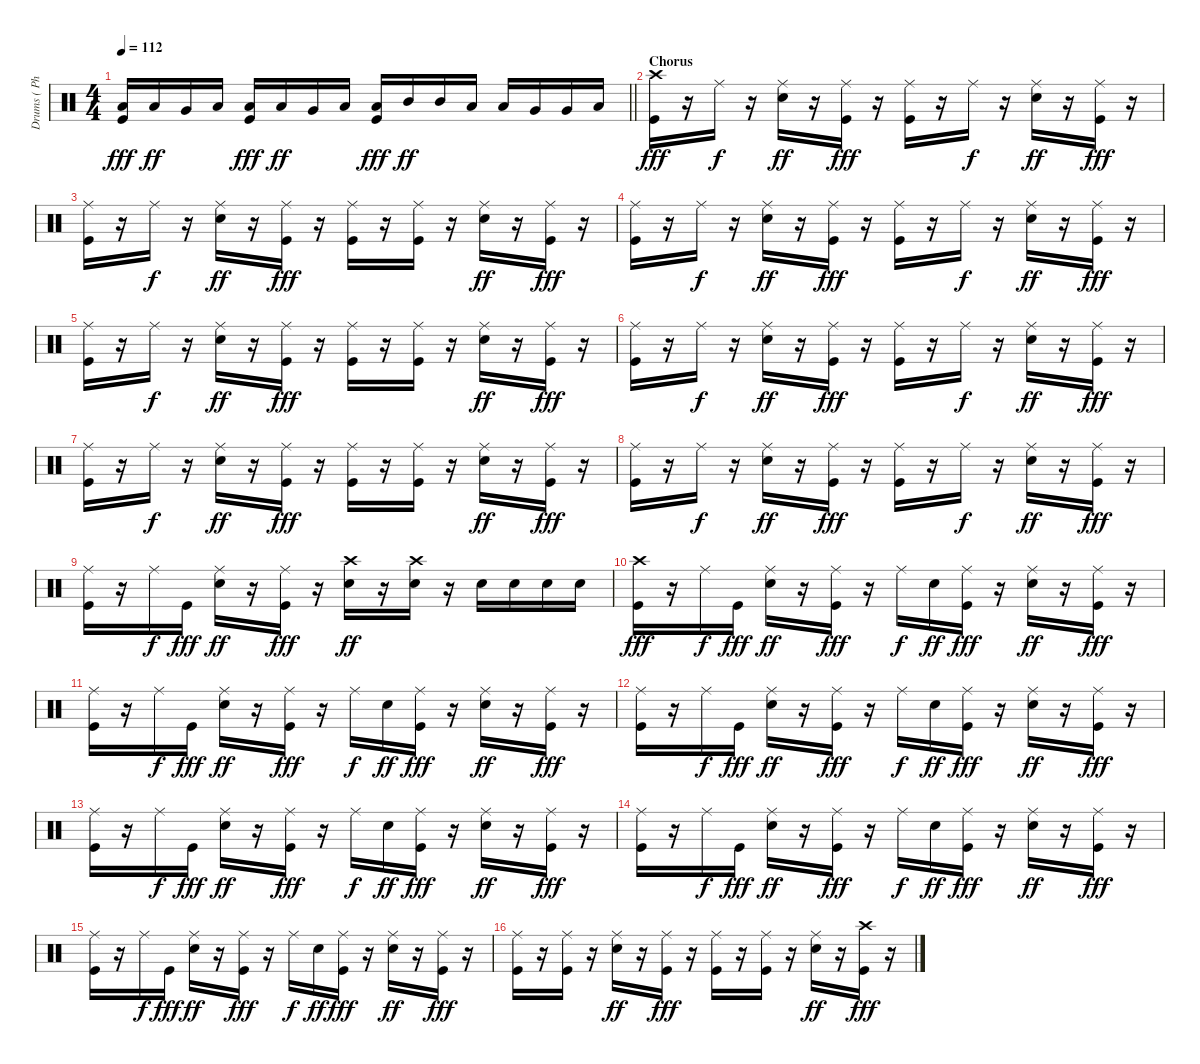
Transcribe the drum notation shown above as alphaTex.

\track ("Drums ( Phillip Selway )" "Drums ( Ph") {instrument percussion}
\staff {score}
\articulation defaults
\ts (4 4)
\tempo 112
\clef neutral
\barLineRight lightlight
\ks c
("Low Tom (hit)" "Kick (hit)").16{dy fff} "Low Floor Tom (hit)".16{dy ff} "Very Low Tom (hit)".16 "Low Floor Tom (hit)".16 ("Low Tom (hit)" "Kick (hit)").16{dy fff} "Low Floor Tom (hit)".16{dy ff} "Very Low Tom (hit)".16 "Low Floor Tom (hit)".16 ("Low Tom (hit)" "Kick (hit)").16{dy fff} "Mid Tom (hit)".16{dy ff} "Mid Tom (hit)".16 "Low Tom (hit)".16 "Low Tom (hit)".16 "Very Low Tom (hit)".16 "Very Low Tom (hit)".16 "Low Floor Tom (hit)".16 |
\section ("" "Chorus")
("Crash high (hit)" "Kick (hit)").16{dy fff} r.16 "Ride (middle)".16{dy f} r.16 ("Ride (middle)" "Electric Snare (hit)").16{dy ff} r.16 ("Ride (middle)" "Kick (hit)").16{dy fff} r.16 ("Ride (middle)" "Kick (hit)").16 r.16 "Ride (middle)".16{dy f} r.16 ("Ride (middle)" "Electric Snare (hit)").16{dy ff} r.16 ("Ride (middle)" "Kick (hit)").16{dy fff} r.16 |
("Ride (middle)" "Kick (hit)").16 r.16 "Ride (middle)".16{dy f} r.16 ("Ride (middle)" "Electric Snare (hit)").16{dy ff} r.16 ("Ride (middle)" "Kick (hit)").16{dy fff} r.16 ("Ride (middle)" "Kick (hit)").16 r.16 ("Ride (middle)" "Kick (hit)").16 r.16 ("Ride (middle)" "Electric Snare (hit)").16{dy ff} r.16 ("Ride (middle)" "Kick (hit)").16{dy fff} r.16 |
("Ride (middle)" "Kick (hit)").16 r.16 "Ride (middle)".16{dy f} r.16 ("Ride (middle)" "Electric Snare (hit)").16{dy ff} r.16 ("Ride (middle)" "Kick (hit)").16{dy fff} r.16 ("Ride (middle)" "Kick (hit)").16 r.16 "Ride (middle)".16{dy f} r.16 ("Ride (middle)" "Electric Snare (hit)").16{dy ff} r.16 ("Ride (middle)" "Kick (hit)").16{dy fff} r.16 |
("Ride (middle)" "Kick (hit)").16 r.16 "Ride (middle)".16{dy f} r.16 ("Ride (middle)" "Electric Snare (hit)").16{dy ff} r.16 ("Ride (middle)" "Kick (hit)").16{dy fff} r.16 ("Ride (middle)" "Kick (hit)").16 r.16 ("Ride (middle)" "Kick (hit)").16 r.16 ("Ride (middle)" "Electric Snare (hit)").16{dy ff} r.16 ("Ride (middle)" "Kick (hit)").16{dy fff} r.16 |
("Ride (middle)" "Kick (hit)").16 r.16 "Ride (middle)".16{dy f} r.16 ("Ride (middle)" "Electric Snare (hit)").16{dy ff} r.16 ("Ride (middle)" "Kick (hit)").16{dy fff} r.16 ("Ride (middle)" "Kick (hit)").16 r.16 "Ride (middle)".16{dy f} r.16 ("Ride (middle)" "Electric Snare (hit)").16{dy ff} r.16 ("Ride (middle)" "Kick (hit)").16{dy fff} r.16 |
("Ride (middle)" "Kick (hit)").16 r.16 "Ride (middle)".16{dy f} r.16 ("Ride (middle)" "Electric Snare (hit)").16{dy ff} r.16 ("Ride (middle)" "Kick (hit)").16{dy fff} r.16 ("Ride (middle)" "Kick (hit)").16 r.16 ("Ride (middle)" "Kick (hit)").16 r.16 ("Ride (middle)" "Electric Snare (hit)").16{dy ff} r.16 ("Ride (middle)" "Kick (hit)").16{dy fff} r.16 |
("Ride (middle)" "Kick (hit)").16 r.16 "Ride (middle)".16{dy f} r.16 ("Ride (middle)" "Electric Snare (hit)").16{dy ff} r.16 ("Ride (middle)" "Kick (hit)").16{dy fff} r.16 ("Ride (middle)" "Kick (hit)").16 r.16 "Ride (middle)".16{dy f} r.16 ("Ride (middle)" "Electric Snare (hit)").16{dy ff} r.16 ("Ride (middle)" "Kick (hit)").16{dy fff} r.16 |
("Ride (middle)" "Kick (hit)").16 r.16 "Ride (middle)".16{dy f} "Kick (hit)".16{dy fff} ("Ride (middle)" "Electric Snare (hit)").16{dy ff} r.16 ("Ride (middle)" "Kick (hit)").16{dy fff} r.16 ("Crash high (hit)" "Electric Snare (hit)").16{dy ff} r.16 ("Crash high (hit)" "Electric Snare (hit)").16 r.16 "Electric Snare (hit)".16 "Electric Snare (hit)".16 "Electric Snare (hit)".16 "Electric Snare (hit)".16 |
("Crash high (hit)" "Kick (hit)").16{dy fff} r.16 "Ride (middle)".16{dy f} "Kick (hit)".16{dy fff} ("Ride (middle)" "Electric Snare (hit)").16{dy ff} r.16 ("Ride (middle)" "Kick (hit)").16{dy fff} r.16 "Ride (middle)".16{dy f} "Electric Snare (hit)".16{dy ff} ("Ride (middle)" "Kick (hit)").16{dy fff} r.16 ("Ride (middle)" "Electric Snare (hit)").16{dy ff} r.16 ("Ride (middle)" "Kick (hit)").16{dy fff} r.16 |
("Ride (middle)" "Kick (hit)").16 r.16 "Ride (middle)".16{dy f} "Kick (hit)".16{dy fff} ("Ride (middle)" "Electric Snare (hit)").16{dy ff} r.16 ("Ride (middle)" "Kick (hit)").16{dy fff} r.16 "Ride (middle)".16{dy f} "Electric Snare (hit)".16{dy ff} ("Ride (middle)" "Kick (hit)").16{dy fff} r.16 ("Ride (middle)" "Electric Snare (hit)").16{dy ff} r.16 ("Ride (middle)" "Kick (hit)").16{dy fff} r.16 |
("Ride (middle)" "Kick (hit)").16 r.16 "Ride (middle)".16{dy f} "Kick (hit)".16{dy fff} ("Ride (middle)" "Electric Snare (hit)").16{dy ff} r.16 ("Ride (middle)" "Kick (hit)").16{dy fff} r.16 "Ride (middle)".16{dy f} "Electric Snare (hit)".16{dy ff} ("Ride (middle)" "Kick (hit)").16{dy fff} r.16 ("Ride (middle)" "Electric Snare (hit)").16{dy ff} r.16 ("Ride (middle)" "Kick (hit)").16{dy fff} r.16 |
("Ride (middle)" "Kick (hit)").16 r.16 "Ride (middle)".16{dy f} "Kick (hit)".16{dy fff} ("Ride (middle)" "Electric Snare (hit)").16{dy ff} r.16 ("Ride (middle)" "Kick (hit)").16{dy fff} r.16 "Ride (middle)".16{dy f} "Electric Snare (hit)".16{dy ff} ("Ride (middle)" "Kick (hit)").16{dy fff} r.16 ("Ride (middle)" "Electric Snare (hit)").16{dy ff} r.16 ("Ride (middle)" "Kick (hit)").16{dy fff} r.16 |
("Ride (middle)" "Kick (hit)").16 r.16 "Ride (middle)".16{dy f} "Kick (hit)".16{dy fff} ("Ride (middle)" "Electric Snare (hit)").16{dy ff} r.16 ("Ride (middle)" "Kick (hit)").16{dy fff} r.16 "Ride (middle)".16{dy f} "Electric Snare (hit)".16{dy ff} ("Ride (middle)" "Kick (hit)").16{dy fff} r.16 ("Ride (middle)" "Electric Snare (hit)").16{dy ff} r.16 ("Ride (middle)" "Kick (hit)").16{dy fff} r.16 |
("Ride (middle)" "Kick (hit)").16 r.16 "Ride (middle)".16{dy f} "Kick (hit)".16{dy fff} ("Ride (middle)" "Electric Snare (hit)").16{dy ff} r.16 ("Ride (middle)" "Kick (hit)").16{dy fff} r.16 "Ride (middle)".16{dy f} "Electric Snare (hit)".16{dy ff} ("Ride (middle)" "Kick (hit)").16{dy fff} r.16 ("Ride (middle)" "Electric Snare (hit)").16{dy ff} r.16 ("Ride (middle)" "Kick (hit)").16{dy fff} r.16 |
("Ride (middle)" "Kick (hit)").16 r.16 ("Ride (middle)" "Kick (hit)").16 r.16 ("Ride (middle)" "Electric Snare (hit)").16{dy ff} r.16 ("Ride (middle)" "Kick (hit)").16{dy fff} r.16 ("Ride (middle)" "Kick (hit)").16 r.16 ("Ride (middle)" "Kick (hit)").16 r.16 ("Ride (middle)" "Electric Snare (hit)").16{dy ff} r.16 ("Crash high (hit)" "Kick (hit)").16{dy fff} r.16
